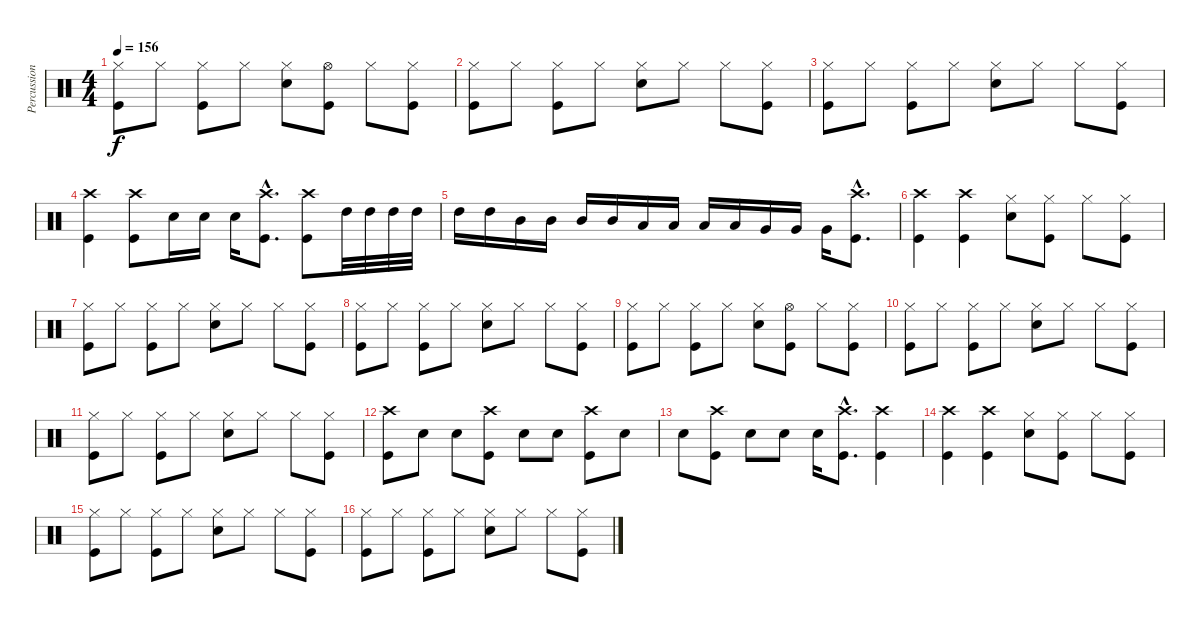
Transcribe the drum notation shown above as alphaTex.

\track ("Percussion" "Percussion") {instrument percussion}
\staff {score}
\articulation defaults
\ts (4 4)
\tempo 156
\clef neutral
\ks c
("Hi-Hat (closed)" "Kick (hit)").8{dy f} "Hi-Hat (closed)".8 ("Hi-Hat (closed)" "Kick (hit)").8 "Hi-Hat (closed)".8 ("Hi-Hat (closed)" "Electric Snare (hit)").8 ("Hi-Hat (open)" "Kick (hit)").8 "Hi-Hat (closed)".8 ("Hi-Hat (closed)" "Kick (hit)").8 |
("Hi-Hat (closed)" "Kick (hit)").8 "Hi-Hat (closed)".8 ("Hi-Hat (closed)" "Kick (hit)").8 "Hi-Hat (closed)".8 ("Hi-Hat (closed)" "Electric Snare (hit)").8 "Hi-Hat (closed)".8 "Hi-Hat (closed)".8 ("Hi-Hat (closed)" "Kick (hit)").8 |
("Hi-Hat (closed)" "Kick (hit)").8 "Hi-Hat (closed)".8 ("Hi-Hat (closed)" "Kick (hit)").8 "Hi-Hat (closed)".8 ("Hi-Hat (closed)" "Electric Snare (hit)").8 "Hi-Hat (closed)".8 "Hi-Hat (closed)".8 ("Hi-Hat (closed)" "Kick (hit)").8 |
("Crash high (hit)" "Kick (hit)").4 ("Crash high (hit)" "Kick (hit)").8 "Electric Snare (hit)".16 "Electric Snare (hit)".16 "Electric Snare (hit)".16 ("Crash high (hit)"{hac} "Kick (hit)"{hac}).8{d} ("Crash high (hit)" "Kick (hit)").8 "High Tom (hit)".32 "High Tom (hit)".32 "High Tom (hit)".32 "High Tom (hit)".32 |
"High Tom (hit)".16 "High Tom (hit)".16 "Mid Tom (hit)".16 "Mid Tom (hit)".16 "Mid Tom (hit)".16 "Mid Tom (hit)".16 "Low Tom (hit)".16 "Low Tom (hit)".16 "Low Tom (hit)".16 "Low Tom (hit)".16 "Very Low Tom (hit)".16 "Very Low Tom (hit)".16 "Very Low Tom (hit)".16 ("Crash high (hit)"{hac} "Kick (hit)"{hac}).8{d} |
("Crash high (hit)" "Kick (hit)").4 ("Crash high (hit)" "Kick (hit)").4 ("Hi-Hat (closed)" "Electric Snare (hit)").8 ("Hi-Hat (closed)" "Kick (hit)").8 "Hi-Hat (closed)".8 ("Hi-Hat (closed)" "Kick (hit)").8 |
("Hi-Hat (closed)" "Kick (hit)").8 "Hi-Hat (closed)".8 ("Hi-Hat (closed)" "Kick (hit)").8 "Hi-Hat (closed)".8 ("Hi-Hat (closed)" "Electric Snare (hit)").8 "Hi-Hat (closed)".8 "Hi-Hat (closed)".8 ("Hi-Hat (closed)" "Kick (hit)").8 |
("Hi-Hat (closed)" "Kick (hit)").8 "Hi-Hat (closed)".8 ("Hi-Hat (closed)" "Kick (hit)").8 "Hi-Hat (closed)".8 ("Hi-Hat (closed)" "Electric Snare (hit)").8 "Hi-Hat (closed)".8 "Hi-Hat (closed)".8 ("Hi-Hat (closed)" "Kick (hit)").8 |
("Hi-Hat (closed)" "Kick (hit)").8 "Hi-Hat (closed)".8 ("Hi-Hat (closed)" "Kick (hit)").8 "Hi-Hat (closed)".8 ("Hi-Hat (closed)" "Electric Snare (hit)").8 ("Hi-Hat (open)" "Kick (hit)").8 "Hi-Hat (closed)".8 ("Hi-Hat (closed)" "Kick (hit)").8 |
("Hi-Hat (closed)" "Kick (hit)").8 "Hi-Hat (closed)".8 ("Hi-Hat (closed)" "Kick (hit)").8 "Hi-Hat (closed)".8 ("Hi-Hat (closed)" "Electric Snare (hit)").8 "Hi-Hat (closed)".8 "Hi-Hat (closed)".8 ("Hi-Hat (closed)" "Kick (hit)").8 |
("Hi-Hat (closed)" "Kick (hit)").8 "Hi-Hat (closed)".8 ("Hi-Hat (closed)" "Kick (hit)").8 "Hi-Hat (closed)".8 ("Hi-Hat (closed)" "Electric Snare (hit)").8 "Hi-Hat (closed)".8 "Hi-Hat (closed)".8 ("Hi-Hat (closed)" "Kick (hit)").8 |
("Crash high (hit)" "Kick (hit)").8 "Electric Snare (hit)".8 "Electric Snare (hit)".8 ("Crash high (hit)" "Kick (hit)").8 "Electric Snare (hit)".8 "Electric Snare (hit)".8 ("Crash high (hit)" "Kick (hit)").8 "Electric Snare (hit)".8 |
"Electric Snare (hit)".8 ("Crash high (hit)" "Kick (hit)").8 "Electric Snare (hit)".8 "Electric Snare (hit)".8 "Electric Snare (hit)".16 ("Crash high (hit)"{hac} "Kick (hit)"{hac}).8{d} ("Crash high (hit)" "Kick (hit)").4 |
("Crash high (hit)" "Kick (hit)").4 ("Crash high (hit)" "Kick (hit)").4 ("Hi-Hat (closed)" "Electric Snare (hit)").8 ("Hi-Hat (closed)" "Kick (hit)").8 "Hi-Hat (closed)".8 ("Hi-Hat (closed)" "Kick (hit)").8 |
("Hi-Hat (closed)" "Kick (hit)").8 "Hi-Hat (closed)".8 ("Hi-Hat (closed)" "Kick (hit)").8 "Hi-Hat (closed)".8 ("Hi-Hat (closed)" "Electric Snare (hit)").8 "Hi-Hat (closed)".8 "Hi-Hat (closed)".8 ("Hi-Hat (closed)" "Kick (hit)").8 |
("Hi-Hat (closed)" "Kick (hit)").8 "Hi-Hat (closed)".8 ("Hi-Hat (closed)" "Kick (hit)").8 "Hi-Hat (closed)".8 ("Hi-Hat (closed)" "Electric Snare (hit)").8 "Hi-Hat (closed)".8 "Hi-Hat (closed)".8 ("Hi-Hat (closed)" "Kick (hit)").8
